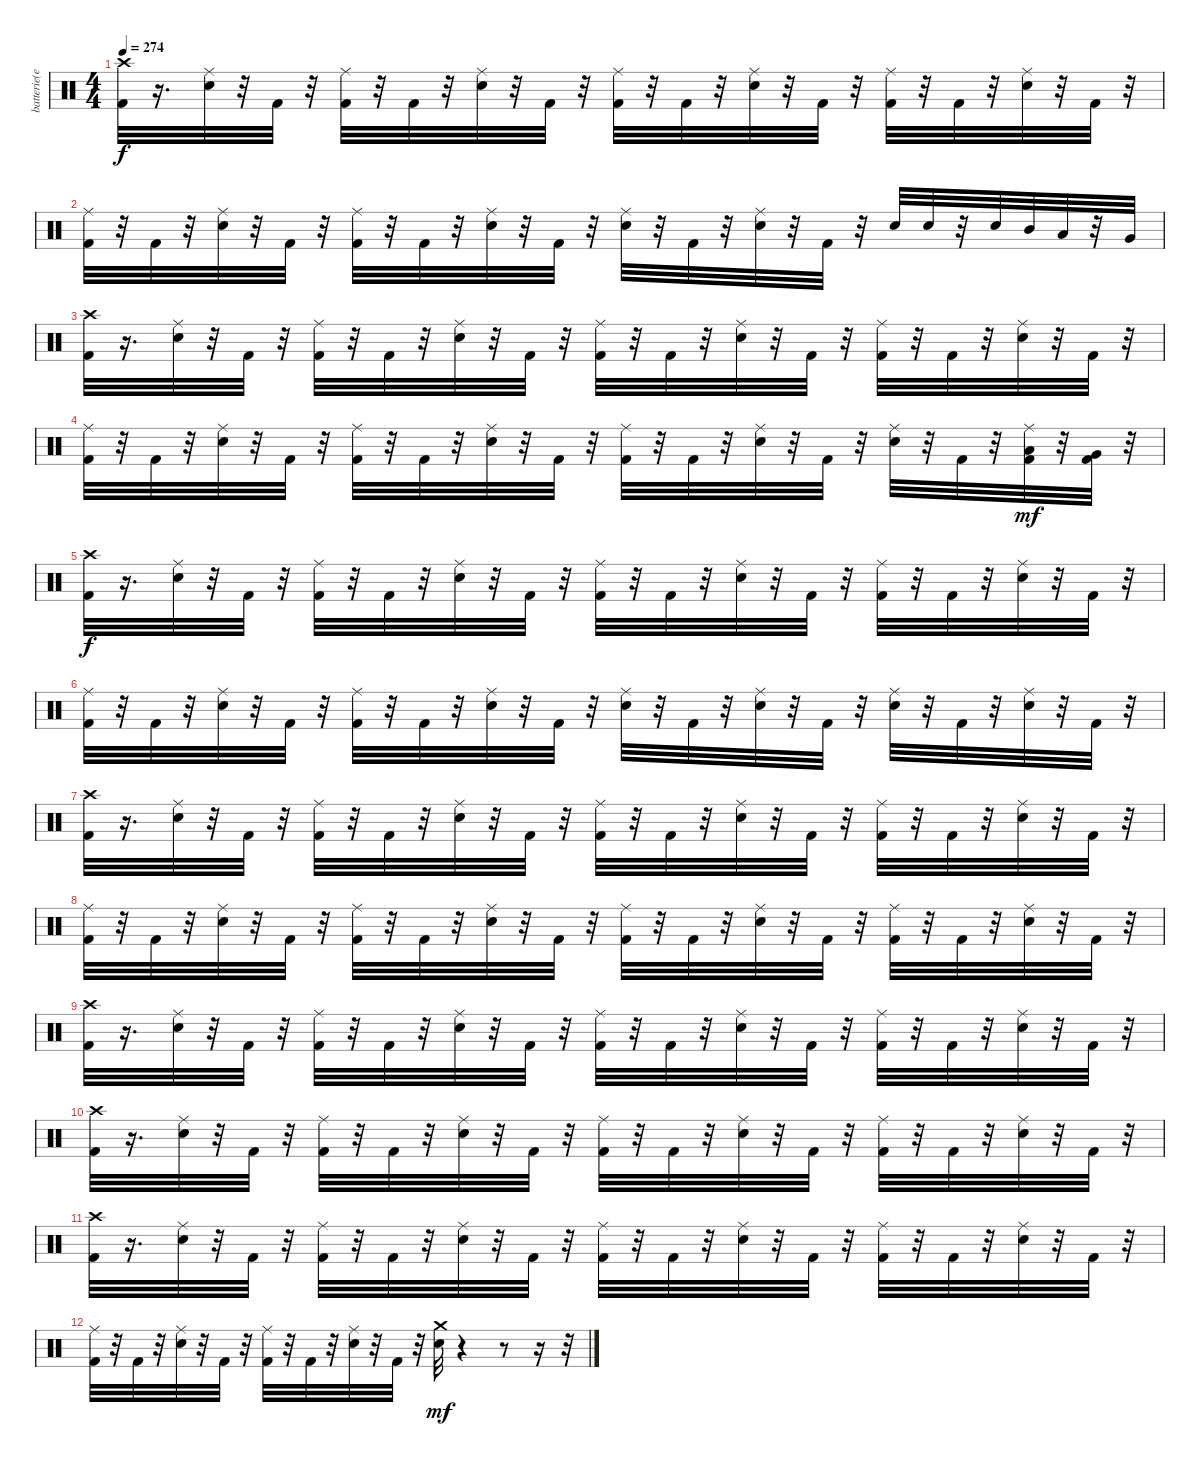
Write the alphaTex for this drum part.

\track ("batterie(eric)" "batterie(e") {instrument percussion}
\staff {score}
\articulation defaults
\ts (4 4)
\tempo 274
\clef neutral
\ks c
("Kick (hit) 2" "Crash high (hit)").32{dy f} r.16{d} ("Snare (hit) 2" "Ride (middle)").32 r.32 "Kick (hit) 2".32 r.32 ("Kick (hit) 2" "Ride (middle)").32 r.32 "Kick (hit) 2".32 r.32 ("Snare (hit) 2" "Ride (middle)").32 r.32 "Kick (hit) 2".32 r.32 ("Kick (hit) 2" "Ride (middle)").32 r.32 "Kick (hit) 2".32 r.32 ("Snare (hit) 2" "Ride (middle)").32 r.32 "Kick (hit) 2".32 r.32 ("Kick (hit) 2" "Ride (middle)").32 r.32 "Kick (hit) 2".32 r.32 ("Snare (hit) 2" "Ride (middle)").32 r.32 "Kick (hit) 2".32 r.32 |
("Kick (hit) 2" "Ride (middle)").32 r.32 "Kick (hit) 2".32 r.32 ("Snare (hit) 2" "Ride (middle)").32 r.32 "Kick (hit) 2".32 r.32 ("Kick (hit) 2" "Ride (middle)").32 r.32 "Kick (hit) 2".32 r.32 ("Snare (hit) 2" "Ride (middle)").32 r.32 "Kick (hit) 2".32 r.32 ("Snare (hit) 2" "Ride (middle)").32 r.32 "Kick (hit) 2".32 r.32 ("Snare (hit) 2" "Ride (middle)").32 r.32 "Kick (hit) 2".32 r.32 "Snare (hit) 2".32 "Snare (hit) 2".32 r.32 "Snare (hit) 2".32 "Mid Tom (hit)".32 "Low Tom (hit)".32 r.32 "Very Low Tom (hit)".32 |
("Kick (hit) 2" "Crash high (hit)").32 r.16{d} ("Snare (hit) 2" "Ride (middle)").32 r.32 "Kick (hit) 2".32 r.32 ("Kick (hit) 2" "Ride (middle)").32 r.32 "Kick (hit) 2".32 r.32 ("Snare (hit) 2" "Ride (middle)").32 r.32 "Kick (hit) 2".32 r.32 ("Kick (hit) 2" "Ride (middle)").32 r.32 "Kick (hit) 2".32 r.32 ("Snare (hit) 2" "Ride (middle)").32 r.32 "Kick (hit) 2".32 r.32 ("Kick (hit) 2" "Ride (middle)").32 r.32 "Kick (hit) 2".32 r.32 ("Snare (hit) 2" "Ride (middle)").32 r.32 "Kick (hit) 2".32 r.32 |
("Kick (hit) 2" "Ride (middle)").32 r.32 "Kick (hit) 2".32 r.32 ("Snare (hit) 2" "Ride (middle)").32 r.32 "Kick (hit) 2".32 r.32 ("Kick (hit) 2" "Ride (middle)").32 r.32 "Kick (hit) 2".32 r.32 ("Snare (hit) 2" "Ride (middle)").32 r.32 "Kick (hit) 2".32 r.32 ("Kick (hit) 2" "Ride (middle)").32 r.32 "Kick (hit) 2".32 r.32 ("Snare (hit) 2" "Ride (middle)").32 r.32 "Kick (hit) 2".32 r.32 ("Snare (hit) 2" "Ride (middle)").32 r.32 "Kick (hit) 2".32 r.32 ("Kick (hit) 2" "Low Tom (hit)" "Ride (middle)").32{dy mf} r.32 ("Kick (hit) 2" "Very Low Tom (hit)").32 r.32 |
("Kick (hit) 2" "Crash high (hit)").32{dy f} r.16{d} ("Snare (hit) 2" "Ride (middle)").32 r.32 "Kick (hit) 2".32 r.32 ("Kick (hit) 2" "Ride (middle)").32 r.32 "Kick (hit) 2".32 r.32 ("Snare (hit) 2" "Ride (middle)").32 r.32 "Kick (hit) 2".32 r.32 ("Kick (hit) 2" "Ride (middle)").32 r.32 "Kick (hit) 2".32 r.32 ("Snare (hit) 2" "Ride (middle)").32 r.32 "Kick (hit) 2".32 r.32 ("Kick (hit) 2" "Ride (middle)").32 r.32 "Kick (hit) 2".32 r.32 ("Snare (hit) 2" "Ride (middle)").32 r.32 "Kick (hit) 2".32 r.32 |
("Kick (hit) 2" "Ride (middle)").32 r.32 "Kick (hit) 2".32 r.32 ("Snare (hit) 2" "Ride (middle)").32 r.32 "Kick (hit) 2".32 r.32 ("Kick (hit) 2" "Ride (middle)").32 r.32 "Kick (hit) 2".32 r.32 ("Snare (hit) 2" "Ride (middle)").32 r.32 "Kick (hit) 2".32 r.32 ("Snare (hit) 2" "Ride (middle)").32 r.32 "Kick (hit) 2".32 r.32 ("Snare (hit) 2" "Ride (middle)").32 r.32 "Kick (hit) 2".32 r.32 ("Snare (hit) 2" "Ride (middle)").32 r.32 "Kick (hit) 2".32 r.32 ("Snare (hit) 2" "Ride (middle)").32 r.32 "Kick (hit) 2".32 r.32 |
("Kick (hit) 2" "Crash high (hit)").32 r.16{d} ("Snare (hit) 2" "Ride (middle)").32 r.32 "Kick (hit) 2".32 r.32 ("Kick (hit) 2" "Ride (middle)").32 r.32 "Kick (hit) 2".32 r.32 ("Snare (hit) 2" "Ride (middle)").32 r.32 "Kick (hit) 2".32 r.32 ("Kick (hit) 2" "Ride (middle)").32 r.32 "Kick (hit) 2".32 r.32 ("Snare (hit) 2" "Ride (middle)").32 r.32 "Kick (hit) 2".32 r.32 ("Kick (hit) 2" "Ride (middle)").32 r.32 "Kick (hit) 2".32 r.32 ("Snare (hit) 2" "Ride (middle)").32 r.32 "Kick (hit) 2".32 r.32 |
("Kick (hit) 2" "Ride (middle)").32 r.32 "Kick (hit) 2".32 r.32 ("Snare (hit) 2" "Ride (middle)").32 r.32 "Kick (hit) 2".32 r.32 ("Kick (hit) 2" "Ride (middle)").32 r.32 "Kick (hit) 2".32 r.32 ("Snare (hit) 2" "Ride (middle)").32 r.32 "Kick (hit) 2".32 r.32 ("Kick (hit) 2" "Ride (middle)").32 r.32 "Kick (hit) 2".32 r.32 ("Snare (hit) 2" "Ride (middle)").32 r.32 "Kick (hit) 2".32 r.32 ("Kick (hit) 2" "Ride (middle)").32 r.32 "Kick (hit) 2".32 r.32 ("Snare (hit) 2" "Ride (middle)").32 r.32 "Kick (hit) 2".32 r.32 |
("Kick (hit) 2" "Crash high (hit)").32 r.16{d} ("Snare (hit) 2" "Ride (middle)").32 r.32 "Kick (hit) 2".32 r.32 ("Kick (hit) 2" "Ride (middle)").32 r.32 "Kick (hit) 2".32 r.32 ("Snare (hit) 2" "Ride (middle)").32 r.32 "Kick (hit) 2".32 r.32 ("Kick (hit) 2" "Ride (middle)").32 r.32 "Kick (hit) 2".32 r.32 ("Snare (hit) 2" "Ride (middle)").32 r.32 "Kick (hit) 2".32 r.32 ("Kick (hit) 2" "Ride (middle)").32 r.32 "Kick (hit) 2".32 r.32 ("Snare (hit) 2" "Ride (middle)").32 r.32 "Kick (hit) 2".32 r.32 |
("Kick (hit) 2" "Crash high (hit)").32 r.16{d} ("Snare (hit) 2" "Ride (middle)").32 r.32 "Kick (hit) 2".32 r.32 ("Kick (hit) 2" "Ride (middle)").32 r.32 "Kick (hit) 2".32 r.32 ("Snare (hit) 2" "Ride (middle)").32 r.32 "Kick (hit) 2".32 r.32 ("Kick (hit) 2" "Ride (middle)").32 r.32 "Kick (hit) 2".32 r.32 ("Snare (hit) 2" "Ride (middle)").32 r.32 "Kick (hit) 2".32 r.32 ("Kick (hit) 2" "Ride (middle)").32 r.32 "Kick (hit) 2".32 r.32 ("Snare (hit) 2" "Ride (middle)").32 r.32 "Kick (hit) 2".32 r.32 |
("Kick (hit) 2" "Crash high (hit)").32 r.16{d} ("Snare (hit) 2" "Ride (middle)").32 r.32 "Kick (hit) 2".32 r.32 ("Kick (hit) 2" "Ride (middle)").32 r.32 "Kick (hit) 2".32 r.32 ("Snare (hit) 2" "Ride (middle)").32 r.32 "Kick (hit) 2".32 r.32 ("Kick (hit) 2" "Ride (middle)").32 r.32 "Kick (hit) 2".32 r.32 ("Snare (hit) 2" "Ride (middle)").32 r.32 "Kick (hit) 2".32 r.32 ("Kick (hit) 2" "Ride (middle)").32 r.32 "Kick (hit) 2".32 r.32 ("Snare (hit) 2" "Ride (middle)").32 r.32 "Kick (hit) 2".32 r.32 |
("Kick (hit) 2" "Ride (middle)").32 r.32 "Kick (hit) 2".32 r.32 ("Snare (hit) 2" "Ride (middle)").32 r.32 "Kick (hit) 2".32 r.32 ("Kick (hit) 2" "Ride (middle)").32 r.32 "Kick (hit) 2".32 r.32 ("Snare (hit) 2" "Ride (middle)").32 r.32 "Kick (hit) 2".32 r.32 ("Snare (hit) 2" "Crash medium (hit)").32{dy mf} r.4 r.8 r.16 r.32
